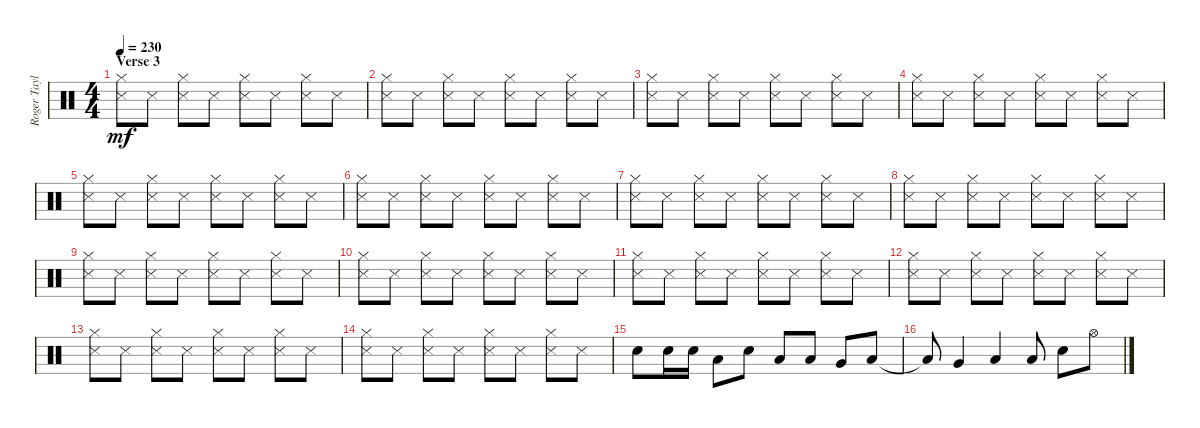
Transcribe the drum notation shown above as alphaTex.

\track ("Roger Taylor" "Roger Tayl") {instrument percussion}
\staff {score}
\articulation defaults
\ts (4 4)
\section ("" "Verse 3")
\tempo 230
\clef neutral
\ks c
("Snare (side stick) 3" "Hi-Hat (closed)").8{dy mf} "Snare (side stick) 3".8 ("Snare (side stick) 3" "Hi-Hat (closed)").8 "Snare (side stick) 3".8 ("Snare (side stick) 3" "Hi-Hat (closed)").8 "Snare (side stick) 3".8 ("Snare (side stick) 3" "Hi-Hat (closed)").8 "Snare (side stick) 3".8 |
("Snare (side stick) 3" "Hi-Hat (closed)").8 "Snare (side stick) 3".8 ("Snare (side stick) 3" "Hi-Hat (closed)").8 "Snare (side stick) 3".8 ("Snare (side stick) 3" "Hi-Hat (closed)").8 "Snare (side stick) 3".8 ("Snare (side stick) 3" "Hi-Hat (closed)").8 "Snare (side stick) 3".8 |
("Snare (side stick) 3" "Hi-Hat (closed)").8 "Snare (side stick) 3".8 ("Snare (side stick) 3" "Hi-Hat (closed)").8 "Snare (side stick) 3".8 ("Snare (side stick) 3" "Hi-Hat (closed)").8 "Snare (side stick) 3".8 ("Snare (side stick) 3" "Hi-Hat (closed)").8 "Snare (side stick) 3".8 |
("Snare (side stick) 3" "Hi-Hat (closed)").8 "Snare (side stick) 3".8 ("Snare (side stick) 3" "Hi-Hat (closed)").8 "Snare (side stick) 3".8 ("Snare (side stick) 3" "Hi-Hat (closed)").8 "Snare (side stick) 3".8 ("Snare (side stick) 3" "Hi-Hat (closed)").8 "Snare (side stick) 3".8 |
("Snare (side stick) 3" "Hi-Hat (closed)").8 "Snare (side stick) 3".8 ("Snare (side stick) 3" "Hi-Hat (closed)").8 "Snare (side stick) 3".8 ("Snare (side stick) 3" "Hi-Hat (closed)").8 "Snare (side stick) 3".8 ("Snare (side stick) 3" "Hi-Hat (closed)").8 "Snare (side stick) 3".8 |
("Snare (side stick) 3" "Hi-Hat (closed)").8 "Snare (side stick) 3".8 ("Snare (side stick) 3" "Hi-Hat (closed)").8 "Snare (side stick) 3".8 ("Snare (side stick) 3" "Hi-Hat (closed)").8 "Snare (side stick) 3".8 ("Snare (side stick) 3" "Hi-Hat (closed)").8 "Snare (side stick) 3".8 |
("Snare (side stick) 3" "Hi-Hat (closed)").8 "Snare (side stick) 3".8 ("Snare (side stick) 3" "Hi-Hat (closed)").8 "Snare (side stick) 3".8 ("Snare (side stick) 3" "Hi-Hat (closed)").8 "Snare (side stick) 3".8 ("Snare (side stick) 3" "Hi-Hat (closed)").8 "Snare (side stick) 3".8 |
("Snare (side stick) 3" "Hi-Hat (closed)").8 "Snare (side stick) 3".8 ("Snare (side stick) 3" "Hi-Hat (closed)").8 "Snare (side stick) 3".8 ("Snare (side stick) 3" "Hi-Hat (closed)").8 "Snare (side stick) 3".8 ("Snare (side stick) 3" "Hi-Hat (closed)").8 "Snare (side stick) 3".8 |
("Snare (side stick) 3" "Hi-Hat (closed)").8 "Snare (side stick) 3".8 ("Snare (side stick) 3" "Hi-Hat (closed)").8 "Snare (side stick) 3".8 ("Snare (side stick) 3" "Hi-Hat (closed)").8 "Snare (side stick) 3".8 ("Snare (side stick) 3" "Hi-Hat (closed)").8 "Snare (side stick) 3".8 |
("Snare (side stick) 3" "Hi-Hat (closed)").8 "Snare (side stick) 3".8 ("Snare (side stick) 3" "Hi-Hat (closed)").8 "Snare (side stick) 3".8 ("Snare (side stick) 3" "Hi-Hat (closed)").8 "Snare (side stick) 3".8 ("Snare (side stick) 3" "Hi-Hat (closed)").8 "Snare (side stick) 3".8 |
("Snare (side stick) 3" "Hi-Hat (closed)").8 "Snare (side stick) 3".8 ("Snare (side stick) 3" "Hi-Hat (closed)").8 "Snare (side stick) 3".8 ("Snare (side stick) 3" "Hi-Hat (closed)").8 "Snare (side stick) 3".8 ("Snare (side stick) 3" "Hi-Hat (closed)").8 "Snare (side stick) 3".8 |
("Snare (side stick) 3" "Hi-Hat (closed)").8 "Snare (side stick) 3".8 ("Snare (side stick) 3" "Hi-Hat (closed)").8 "Snare (side stick) 3".8 ("Snare (side stick) 3" "Hi-Hat (closed)").8 "Snare (side stick) 3".8 ("Snare (side stick) 3" "Hi-Hat (closed)").8 "Snare (side stick) 3".8 |
("Snare (side stick) 3" "Hi-Hat (closed)").8 "Snare (side stick) 3".8 ("Snare (side stick) 3" "Hi-Hat (closed)").8 "Snare (side stick) 3".8 ("Snare (side stick) 3" "Hi-Hat (closed)").8 "Snare (side stick) 3".8 ("Snare (side stick) 3" "Hi-Hat (closed)").8 "Snare (side stick) 3".8 |
("Snare (side stick) 3" "Hi-Hat (closed)").8 "Snare (side stick) 3".8 ("Snare (side stick) 3" "Hi-Hat (closed)").8 "Snare (side stick) 3".8 ("Snare (side stick) 3" "Hi-Hat (closed)").8 "Snare (side stick) 3".8 ("Snare (side stick) 3" "Hi-Hat (closed)").8 "Snare (side stick) 3".8 |
"Snare (hit) 2".8 "Snare (hit) 2".16 "Snare (hit) 2".16 "Low Tom (hit)".8 "Snare (hit) 2".8 "Low Tom (hit)".8 "Low Tom (hit)".8 "Very Low Tom (hit)".8 "Low Floor Tom (hit)".8 |
"Low Floor Tom (hit)"{t}.8 "Very Low Tom (hit)".4 "Low Tom (hit)".4 "Low Tom (hit)".8 "Snare (hit) 2".8 "Hi-Hat (open)".8
